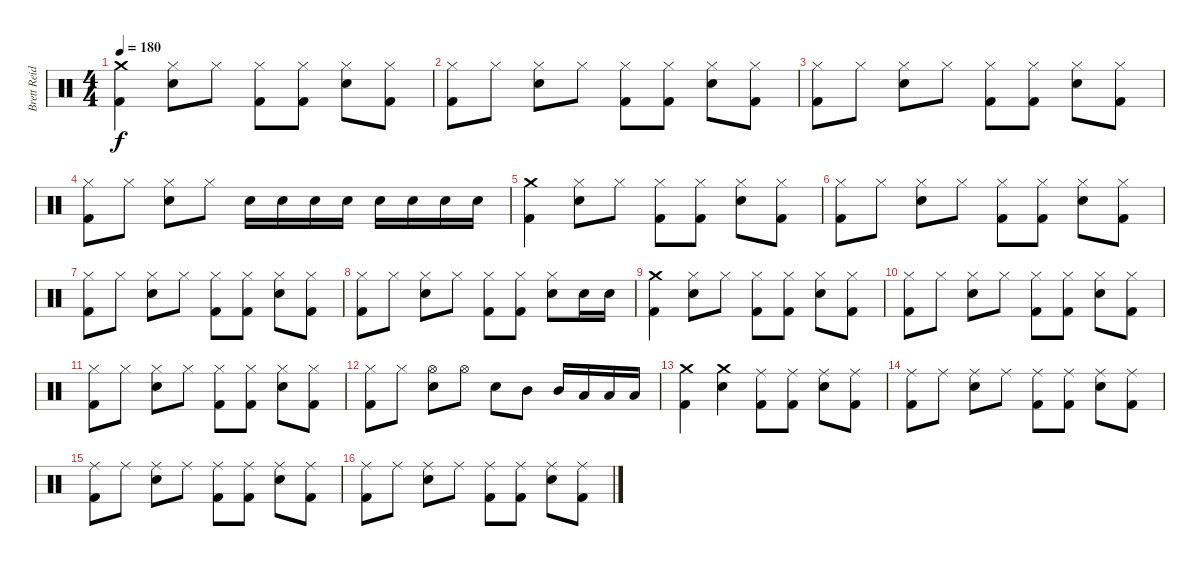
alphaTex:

\track ("Brett Reid" "Brett Reid") {instrument percussion}
\staff {score}
\articulation defaults
\ts (4 4)
\tempo 180
\clef neutral
\ks c
("Crash medium (hit)" "Kick (hit) 2").4{dy f} ("Hi-Hat (closed)" "Snare (hit) 2").8 "Hi-Hat (closed)".8 ("Hi-Hat (closed)" "Kick (hit) 2").8 ("Hi-Hat (closed)" "Kick (hit) 2").8 ("Hi-Hat (closed)" "Snare (hit) 2").8 ("Hi-Hat (closed)" "Kick (hit) 2").8 |
("Hi-Hat (closed)" "Kick (hit) 2").8 "Hi-Hat (closed)".8 ("Hi-Hat (closed)" "Snare (hit) 2").8 "Hi-Hat (closed)".8 ("Hi-Hat (closed)" "Kick (hit) 2").8 ("Hi-Hat (closed)" "Kick (hit) 2").8 ("Hi-Hat (closed)" "Snare (hit) 2").8 ("Hi-Hat (closed)" "Kick (hit) 2").8 |
("Hi-Hat (closed)" "Kick (hit) 2").8 "Hi-Hat (closed)".8 ("Hi-Hat (closed)" "Snare (hit) 2").8 "Hi-Hat (closed)".8 ("Hi-Hat (closed)" "Kick (hit) 2").8 ("Hi-Hat (closed)" "Kick (hit) 2").8 ("Hi-Hat (closed)" "Snare (hit) 2").8 ("Hi-Hat (closed)" "Kick (hit) 2").8 |
("Hi-Hat (closed)" "Kick (hit) 2").8 "Hi-Hat (closed)".8 ("Hi-Hat (closed)" "Snare (hit) 2").8 "Hi-Hat (closed)".8 "Snare (hit) 2".16 "Snare (hit) 2".16 "Snare (hit) 2".16 "Snare (hit) 2".16 "Snare (hit) 2".16 "Snare (hit) 2".16 "Snare (hit) 2".16 "Snare (hit) 2".16 |
("Crash medium (hit)" "Kick (hit) 2").4 ("Hi-Hat (closed)" "Snare (hit) 2").8 "Hi-Hat (closed)".8 ("Hi-Hat (closed)" "Kick (hit) 2").8 ("Hi-Hat (closed)" "Kick (hit) 2").8 ("Hi-Hat (closed)" "Snare (hit) 2").8 ("Hi-Hat (closed)" "Kick (hit) 2").8 |
("Hi-Hat (closed)" "Kick (hit) 2").8 "Hi-Hat (closed)".8 ("Hi-Hat (closed)" "Snare (hit) 2").8 "Hi-Hat (closed)".8 ("Hi-Hat (closed)" "Kick (hit) 2").8 ("Hi-Hat (closed)" "Kick (hit) 2").8 ("Hi-Hat (closed)" "Snare (hit) 2").8 ("Hi-Hat (closed)" "Kick (hit) 2").8 |
("Hi-Hat (closed)" "Kick (hit) 2").8 "Hi-Hat (closed)".8 ("Hi-Hat (closed)" "Snare (hit) 2").8 "Hi-Hat (closed)".8 ("Hi-Hat (closed)" "Kick (hit) 2").8 ("Hi-Hat (closed)" "Kick (hit) 2").8 ("Hi-Hat (closed)" "Snare (hit) 2").8 ("Hi-Hat (closed)" "Kick (hit) 2").8 |
("Hi-Hat (closed)" "Kick (hit) 2").8 "Hi-Hat (closed)".8 ("Hi-Hat (closed)" "Snare (hit) 2").8 "Hi-Hat (closed)".8 ("Hi-Hat (closed)" "Kick (hit) 2").8 ("Hi-Hat (closed)" "Kick (hit) 2").8 ("Hi-Hat (closed)" "Snare (hit) 2").8 "Snare (hit) 2".16 "Snare (hit) 2".16 |
("Crash medium (hit)" "Kick (hit) 2").4 ("Hi-Hat (closed)" "Snare (hit) 2").8 "Hi-Hat (closed)".8 ("Hi-Hat (closed)" "Kick (hit) 2").8 ("Hi-Hat (closed)" "Kick (hit) 2").8 ("Hi-Hat (closed)" "Snare (hit) 2").8 ("Hi-Hat (closed)" "Kick (hit) 2").8 |
("Hi-Hat (closed)" "Kick (hit) 2").8 "Hi-Hat (closed)".8 ("Hi-Hat (closed)" "Snare (hit) 2").8 "Hi-Hat (closed)".8 ("Hi-Hat (closed)" "Kick (hit) 2").8 ("Hi-Hat (closed)" "Kick (hit) 2").8 ("Hi-Hat (closed)" "Snare (hit) 2").8 ("Hi-Hat (closed)" "Kick (hit) 2").8 |
("Hi-Hat (closed)" "Kick (hit) 2").8 "Hi-Hat (closed)".8 ("Hi-Hat (closed)" "Snare (hit) 2").8 "Hi-Hat (closed)".8 ("Hi-Hat (closed)" "Kick (hit) 2").8 ("Hi-Hat (closed)" "Kick (hit) 2").8 ("Hi-Hat (closed)" "Snare (hit) 2").8 ("Hi-Hat (closed)" "Kick (hit) 2").8 |
("Hi-Hat (closed)" "Kick (hit) 2").8 "Hi-Hat (closed)".8 ("Hi-Hat (open)" "Snare (hit) 2").8 "Hi-Hat (open)".8 "Snare (hit) 2".8 "Mid Tom (hit)".8 "Mid Tom (hit)".16 "Low Floor Tom (hit)".16 "Low Floor Tom (hit)".16 "Low Floor Tom (hit)".16 |
("Crash medium (hit)" "Kick (hit) 2").4 ("Crash medium (hit)" "Snare (hit) 2").4 ("Ride (middle)" "Kick (hit) 2").8 ("Ride (middle)" "Kick (hit) 2").8 ("Ride (middle)" "Snare (hit) 2").8 ("Ride (middle)" "Kick (hit) 2").8 |
("Ride (middle)" "Kick (hit) 2").8 "Ride (middle)".8 ("Ride (middle)" "Snare (hit) 2").8 "Ride (middle)".8 ("Ride (middle)" "Kick (hit) 2").8 ("Ride (middle)" "Kick (hit) 2").8 ("Ride (middle)" "Snare (hit) 2").8 ("Ride (middle)" "Kick (hit) 2").8 |
("Ride (middle)" "Kick (hit) 2").8 "Ride (middle)".8 ("Ride (middle)" "Snare (hit) 2").8 "Ride (middle)".8 ("Ride (middle)" "Kick (hit) 2").8 ("Ride (middle)" "Kick (hit) 2").8 ("Ride (middle)" "Snare (hit) 2").8 ("Ride (middle)" "Kick (hit) 2").8 |
("Ride (middle)" "Kick (hit) 2").8 "Ride (middle)".8 ("Ride (middle)" "Snare (hit) 2").8 "Ride (middle)".8 ("Ride (middle)" "Kick (hit) 2").8 ("Ride (middle)" "Kick (hit) 2").8 ("Ride (middle)" "Snare (hit) 2").8 ("Ride (middle)" "Kick (hit) 2").8
